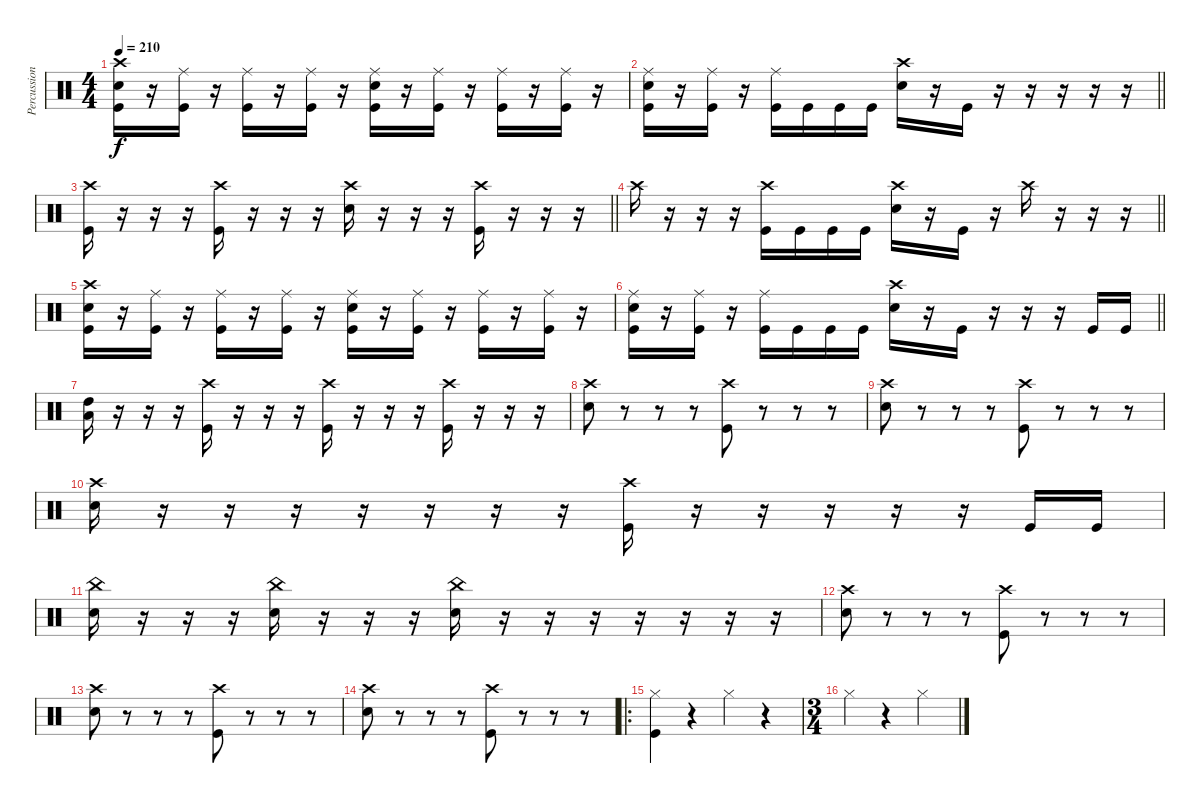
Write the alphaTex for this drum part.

\track ("Percussion" "Percussion") {instrument percussion}
\staff {score}
\articulation defaults
\ts (4 4)
\tempo 210
\clef neutral
\ks c
("Kick (hit)" "Electric Snare (hit)" "Crash high (hit)").16{dy f} r.16 ("Kick (hit)" "Ride (middle)").16 r.16 ("Kick (hit)" "Ride (middle)").16 r.16 ("Kick (hit)" "Ride (middle)").16 r.16 ("Kick (hit)" "Electric Snare (hit)" "Ride (middle)").16 r.16 ("Kick (hit)" "Ride (middle)").16 r.16 ("Kick (hit)" "Ride (middle)").16 r.16 ("Kick (hit)" "Ride (middle)").16 r.16 |
\barLineRight lightlight
("Kick (hit)" "Electric Snare (hit)" "Ride (middle)").16 r.16 ("Kick (hit)" "Ride (middle)").16 r.16 ("Kick (hit)" "Ride (middle)").16 "Kick (hit)".16 "Kick (hit)".16 "Kick (hit)".16 ("Electric Snare (hit)" "Crash high (hit)").16 r.16 "Kick (hit)".16 r.16 r.16 r.16 r.16 r.16 |
\barLineRight lightlight
("Kick (hit)" "Crash high (hit)").16 r.16 r.16 r.16 ("Kick (hit)" "Crash high (hit)").16 r.16 r.16 r.16 ("Electric Snare (hit)" "Crash high (hit)").16 r.16 r.16 r.16 ("Kick (hit)" "Crash high (hit)").16 r.16 r.16 r.16 |
\barLineRight lightlight "Crash high (hit)".16
r.16 r.16 r.16 ("Kick (hit)" "Crash high (hit)").16 "Kick (hit)".16 "Kick (hit)".16 "Kick (hit)".16 ("Electric Snare (hit)" "Crash high (hit)").16 r.16 "Kick (hit)".16 r.16 "Crash high (hit)".16 r.16 r.16 r.16 |
("Kick (hit)" "Electric Snare (hit)" "Crash high (hit)").16 r.16 ("Kick (hit)" "Ride (middle)").16 r.16 ("Kick (hit)" "Ride (middle)").16 r.16 ("Kick (hit)" "Ride (middle)").16 r.16 ("Kick (hit)" "Electric Snare (hit)" "Ride (middle)").16 r.16 ("Kick (hit)" "Ride (middle)").16 r.16 ("Kick (hit)" "Ride (middle)").16 r.16 ("Kick (hit)" "Ride (middle)").16 r.16 |
\barLineRight lightlight
("Kick (hit)" "Electric Snare (hit)" "Ride (middle)").16 r.16 ("Kick (hit)" "Ride (middle)").16 r.16 ("Kick (hit)" "Ride (middle)").16 "Kick (hit)".16 "Kick (hit)".16 "Kick (hit)".16 ("Electric Snare (hit)" "Crash high (hit)").16 r.16 "Kick (hit)".16 r.16 r.16 r.16 "Kick (hit)".16 "Kick (hit)".16 |
("High Tom (hit)" "Low Tom (hit)").16 r.16 r.16 r.16 ("Kick (hit)" "Crash high (hit)").16 r.16 r.16 r.16 ("Kick (hit)" "Crash high (hit)").16 r.16 r.16 r.16 ("Kick (hit)" "Crash high (hit)").16 r.16 r.16 r.16 |
("Electric Snare (hit)" "Crash high (hit)").8 r.8 r.8 r.8 ("Kick (hit)" "Crash high (hit)").8 r.8 r.8 r.8 |
("Electric Snare (hit)" "Crash high (hit)").8 r.8 r.8 r.8 ("Kick (hit)" "Crash high (hit)").8 r.8 r.8 r.8 |
("Electric Snare (hit)" "Crash high (hit)").16 r.16 r.16 r.16 r.16 r.16 r.16 r.16 ("Kick (hit)" "Crash high (hit)").16 r.16 r.16 r.16 r.16 r.16 "Kick (hit)".16 "Kick (hit)".16 |
("China (hit)" "Electric Snare (hit)").16 r.16 r.16 r.16 ("China (hit)" "Electric Snare (hit)").16 r.16 r.16 r.16 ("China (hit)" "Electric Snare (hit)").16 r.16 r.16 r.16 r.16 r.16 r.16 r.16 |
("Electric Snare (hit)" "Crash high (hit)").8 r.8 r.8 r.8 ("Kick (hit)" "Crash high (hit)").8 r.8 r.8 r.8 |
("Electric Snare (hit)" "Crash high (hit)").8 r.8 r.8 r.8 ("Kick (hit)" "Crash high (hit)").8 r.8 r.8 r.8 |
("Electric Snare (hit)" "Crash high (hit)").8 r.8 r.8 r.8 ("Kick (hit)" "Crash high (hit)").8 r.8 r.8 r.8 |
\ro
("Hi-Hat (closed)" "Kick (hit)").4 r.4 "Hi-Hat (closed)".4 r.4 |
\ts (3 4)
"Hi-Hat (closed)".4 r.4 "Hi-Hat (closed)".4
